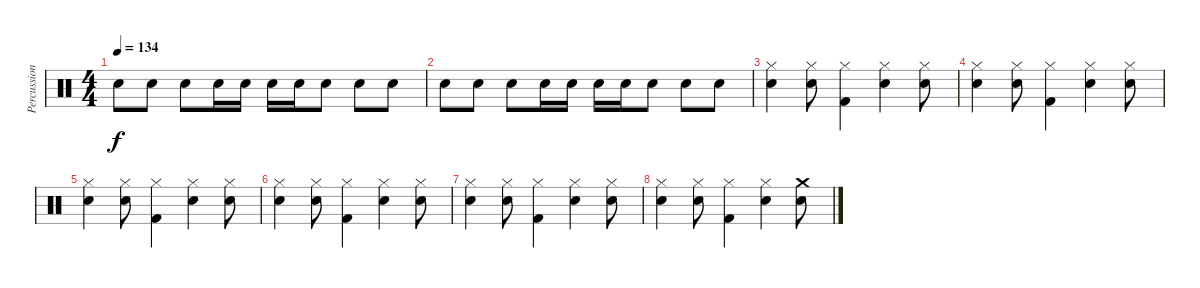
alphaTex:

\track ("Percussion" "Percussion") {instrument percussion}
\staff {score}
\articulation defaults
\ts (4 4)
\tempo 134
\clef neutral
\ks c "Electric Snare (hit)".8{dy f} "Electric Snare (hit)".8 "Electric Snare (hit)".8 "Electric Snare (hit)".16 "Electric Snare (hit)".16 "Electric Snare (hit)".16 "Electric Snare (hit)".16 "Electric Snare (hit)".8 "Electric Snare (hit)".8 "Electric Snare (hit)".8
|
"Electric Snare (hit)".8 "Electric Snare (hit)".8 "Electric Snare (hit)".8 "Electric Snare (hit)".16 "Electric Snare (hit)".16 "Electric Snare (hit)".16 "Electric Snare (hit)".16 "Electric Snare (hit)".8 "Electric Snare (hit)".8 "Electric Snare (hit)".8 |
("Hi-Hat (closed)" "Electric Snare (hit)").4 ("Hi-Hat (closed)" "Electric Snare (hit)").8 ("Hi-Hat (closed)" "Kick (hit) 2").4 ("Hi-Hat (closed)" "Electric Snare (hit)").4 ("Hi-Hat (closed)" "Electric Snare (hit)").8 |
("Hi-Hat (closed)" "Electric Snare (hit)").4 ("Hi-Hat (closed)" "Electric Snare (hit)").8 ("Hi-Hat (closed)" "Kick (hit) 2").4 ("Hi-Hat (closed)" "Electric Snare (hit)").4 ("Hi-Hat (closed)" "Electric Snare (hit)").8 |
("Hi-Hat (closed)" "Electric Snare (hit)").4 ("Hi-Hat (closed)" "Electric Snare (hit)").8 ("Hi-Hat (closed)" "Kick (hit) 2").4 ("Hi-Hat (closed)" "Electric Snare (hit)").4 ("Hi-Hat (closed)" "Electric Snare (hit)").8 |
("Hi-Hat (closed)" "Electric Snare (hit)").4 ("Hi-Hat (closed)" "Electric Snare (hit)").8 ("Hi-Hat (closed)" "Kick (hit) 2").4 ("Hi-Hat (closed)" "Electric Snare (hit)").4 ("Hi-Hat (closed)" "Electric Snare (hit)").8 |
("Hi-Hat (closed)" "Electric Snare (hit)").4 ("Hi-Hat (closed)" "Electric Snare (hit)").8 ("Hi-Hat (closed)" "Kick (hit) 2").4 ("Hi-Hat (closed)" "Electric Snare (hit)").4 ("Hi-Hat (closed)" "Electric Snare (hit)").8 |
("Hi-Hat (closed)" "Electric Snare (hit)").4 ("Hi-Hat (closed)" "Electric Snare (hit)").8 ("Hi-Hat (closed)" "Kick (hit) 2").4 ("Hi-Hat (closed)" "Electric Snare (hit)").4 ("Crash medium (hit)" "Electric Snare (hit)").8
